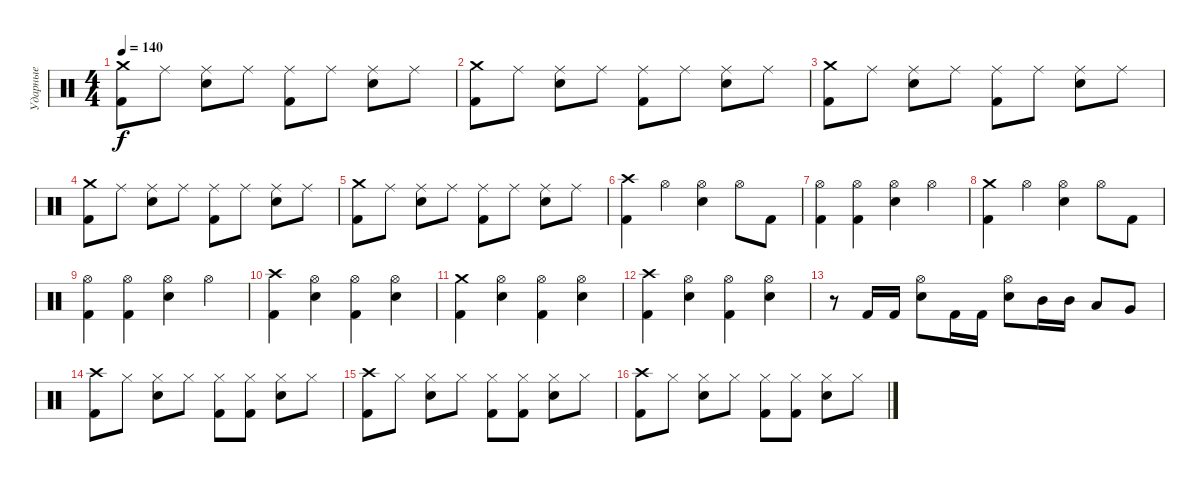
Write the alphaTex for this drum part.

\track ("Ударные" "Ударные") {instrument percussion}
\staff {score}
\articulation defaults
\ts (4 4)
\tempo 140
\clef neutral
\ks c
("Kick (hit) 2" "Crash medium (hit)").8{dy f} "Ride (middle)".8 ("Snare (hit) 2" "Ride (middle)").8 "Ride (middle)".8 ("Kick (hit) 2" "Ride (middle)").8 "Ride (middle)".8 ("Snare (hit) 2" "Ride (middle)").8 "Ride (middle)".8 |
("Kick (hit) 2" "Crash medium (hit)").8 "Ride (middle)".8 ("Snare (hit) 2" "Ride (middle)").8 "Ride (middle)".8 ("Kick (hit) 2" "Ride (middle)").8 "Ride (middle)".8 ("Snare (hit) 2" "Ride (middle)").8 "Ride (middle)".8 |
("Kick (hit) 2" "Crash medium (hit)").8 "Ride (middle)".8 ("Snare (hit) 2" "Ride (middle)").8 "Ride (middle)".8 ("Kick (hit) 2" "Ride (middle)").8 "Ride (middle)".8 ("Snare (hit) 2" "Ride (middle)").8 "Ride (middle)".8 |
("Kick (hit) 2" "Crash medium (hit)").8 "Ride (middle)".8 ("Snare (hit) 2" "Ride (middle)").8 "Ride (middle)".8 ("Kick (hit) 2" "Ride (middle)").8 "Ride (middle)".8 ("Snare (hit) 2" "Ride (middle)").8 "Ride (middle)".8 |
("Kick (hit) 2" "Crash medium (hit)").8 "Ride (middle)".8 ("Snare (hit) 2" "Ride (middle)").8 "Ride (middle)".8 ("Kick (hit) 2" "Ride (middle)").8 "Ride (middle)".8 ("Snare (hit) 2" "Ride (middle)").8 "Ride (middle)".8 |
("Kick (hit) 2" "Crash high (hit)").4 "Hi-Hat (open)".4 ("Snare (hit) 2" "Hi-Hat (open)").4 "Hi-Hat (open)".8 "Kick (hit) 2".8 |
("Kick (hit) 2" "Hi-Hat (open)").4 ("Kick (hit) 2" "Hi-Hat (open)").4 ("Snare (hit) 2" "Hi-Hat (open)").4 "Hi-Hat (open)".4 |
("Kick (hit) 2" "Crash medium (hit)").4 "Hi-Hat (open)".4 ("Snare (hit) 2" "Hi-Hat (open)").4 "Hi-Hat (open)".8 "Kick (hit) 2".8 |
("Kick (hit) 2" "Hi-Hat (open)").4 ("Kick (hit) 2" "Hi-Hat (open)").4 ("Snare (hit) 2" "Hi-Hat (open)").4 "Hi-Hat (open)".4 |
("Kick (hit) 2" "Crash high (hit)").4 ("Snare (hit) 2" "Hi-Hat (open)").4 ("Kick (hit) 2" "Hi-Hat (open)").4 ("Snare (hit) 2" "Hi-Hat (open)").4 |
("Kick (hit) 2" "Crash medium (hit)").4 ("Snare (hit) 2" "Hi-Hat (open)").4 ("Kick (hit) 2" "Hi-Hat (open)").4 ("Snare (hit) 2" "Hi-Hat (open)").4 |
("Kick (hit) 2" "Crash high (hit)").4 ("Snare (hit) 2" "Hi-Hat (open)").4 ("Kick (hit) 2" "Hi-Hat (open)").4 ("Snare (hit) 2" "Hi-Hat (open)").4 |
r.8 "Kick (hit) 2".16 "Kick (hit) 2".16 ("Snare (hit) 2" "Hi-Hat (open)").8 "Kick (hit) 2".16 "Kick (hit) 2".16 ("Snare (hit) 2" "Hi-Hat (open)").8 "Mid Tom (hit)".16 "Mid Tom (hit)".16 "Low Tom (hit)".8 "Very Low Tom (hit)".8 |
("Kick (hit) 2" "Crash high (hit)").8 "Hi-Hat (closed)".8 ("Snare (hit) 2" "Hi-Hat (closed)").8 "Hi-Hat (closed)".8 ("Kick (hit) 2" "Hi-Hat (closed)").8 ("Kick (hit) 2" "Hi-Hat (closed)").8 ("Snare (hit) 2" "Hi-Hat (closed)").8 "Hi-Hat (closed)".8 |
("Kick (hit) 2" "Crash high (hit)").8 "Hi-Hat (closed)".8 ("Snare (hit) 2" "Hi-Hat (closed)").8 "Hi-Hat (closed)".8 ("Kick (hit) 2" "Hi-Hat (closed)").8 ("Kick (hit) 2" "Hi-Hat (closed)").8 ("Snare (hit) 2" "Hi-Hat (closed)").8 "Hi-Hat (closed)".8 |
("Kick (hit) 2" "Crash high (hit)").8 "Hi-Hat (closed)".8 ("Snare (hit) 2" "Hi-Hat (closed)").8 "Hi-Hat (closed)".8 ("Kick (hit) 2" "Hi-Hat (closed)").8 ("Kick (hit) 2" "Hi-Hat (closed)").8 ("Snare (hit) 2" "Hi-Hat (closed)").8 "Hi-Hat (closed)".8
